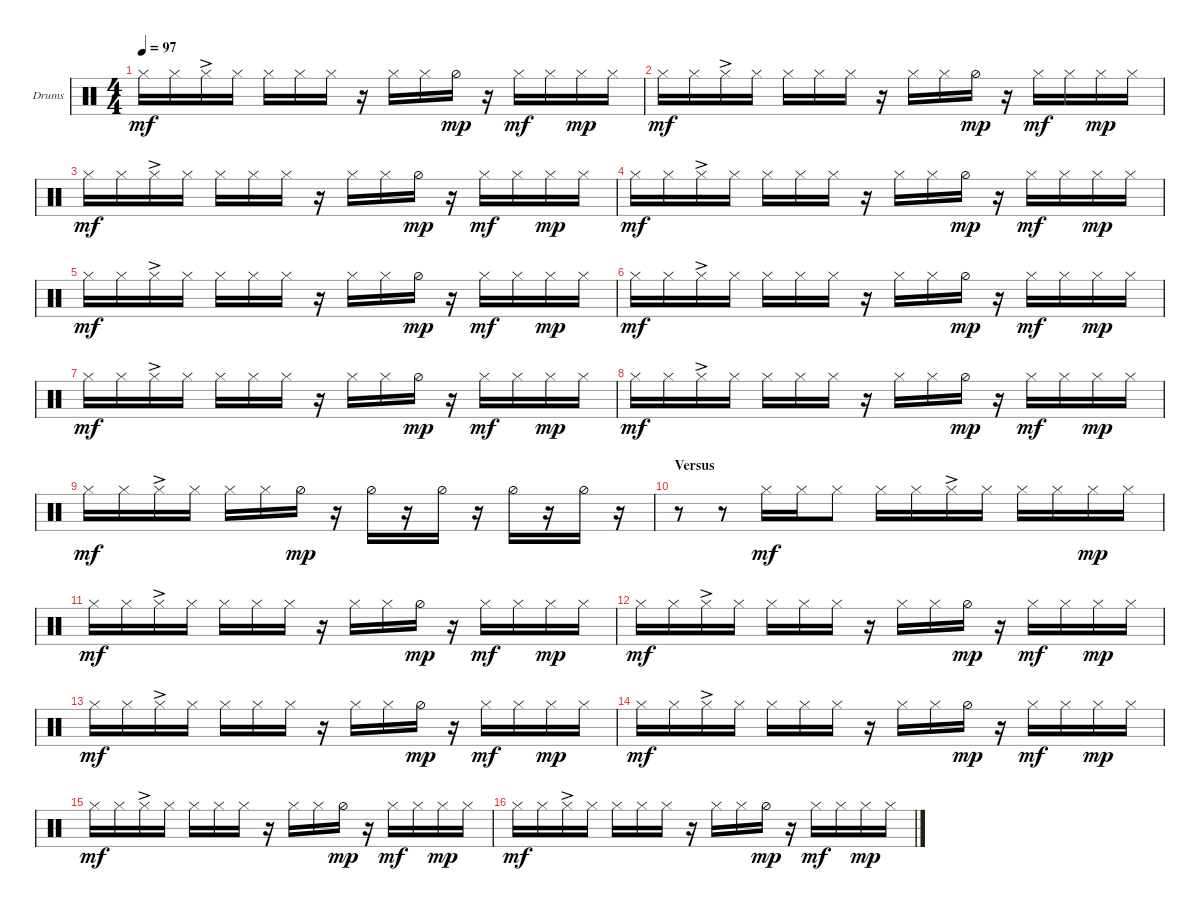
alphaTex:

\bracketExtendMode groupsimilarinstruments
\firstSystemTrackNameOrientation horizontal
\otherSystemsTrackNameOrientation horizontal
\track ("HH" "Drums") {instrument percussion}
\staff {score}
\articulation defaults
\ts (4 4)
\tempo 97
\clef neutral
\ks c "Hi-Hat (closed)".16{dy mf} "Hi-Hat (closed)".16 "Hi-Hat (closed)"{ac}.16 "Hi-Hat (closed)".16 "Hi-Hat (closed)".16 "Hi-Hat (closed)".16 "Hi-Hat (closed)".16
r.16 "Hi-Hat (closed)".16 "Hi-Hat (closed)".16 "Hi-Hat (half)".16{dy mp} r.16 "Hi-Hat (closed)".16{dy mf} "Hi-Hat (closed)".16 "Hi-Hat (closed)".16{dy mp} "Hi-Hat (closed)".16 |
"Hi-Hat (closed)".16{dy mf} "Hi-Hat (closed)".16 "Hi-Hat (closed)"{ac}.16 "Hi-Hat (closed)".16 "Hi-Hat (closed)".16 "Hi-Hat (closed)".16 "Hi-Hat (closed)".16 r.16 "Hi-Hat (closed)".16 "Hi-Hat (closed)".16 "Hi-Hat (half)".16{dy mp} r.16 "Hi-Hat (closed)".16{dy mf} "Hi-Hat (closed)".16 "Hi-Hat (closed)".16{dy mp} "Hi-Hat (closed)".16 |
"Hi-Hat (closed)".16{dy mf} "Hi-Hat (closed)".16 "Hi-Hat (closed)"{ac}.16 "Hi-Hat (closed)".16 "Hi-Hat (closed)".16 "Hi-Hat (closed)".16 "Hi-Hat (closed)".16 r.16 "Hi-Hat (closed)".16 "Hi-Hat (closed)".16 "Hi-Hat (half)".16{dy mp} r.16 "Hi-Hat (closed)".16{dy mf} "Hi-Hat (closed)".16 "Hi-Hat (closed)".16{dy mp} "Hi-Hat (closed)".16 |
"Hi-Hat (closed)".16{dy mf} "Hi-Hat (closed)".16 "Hi-Hat (closed)"{ac}.16 "Hi-Hat (closed)".16 "Hi-Hat (closed)".16 "Hi-Hat (closed)".16 "Hi-Hat (closed)".16 r.16 "Hi-Hat (closed)".16 "Hi-Hat (closed)".16 "Hi-Hat (half)".16{dy mp} r.16 "Hi-Hat (closed)".16{dy mf} "Hi-Hat (closed)".16 "Hi-Hat (closed)".16{dy mp} "Hi-Hat (closed)".16 |
"Hi-Hat (closed)".16{dy mf} "Hi-Hat (closed)".16 "Hi-Hat (closed)"{ac}.16 "Hi-Hat (closed)".16 "Hi-Hat (closed)".16 "Hi-Hat (closed)".16 "Hi-Hat (closed)".16 r.16 "Hi-Hat (closed)".16 "Hi-Hat (closed)".16 "Hi-Hat (half)".16{dy mp} r.16 "Hi-Hat (closed)".16{dy mf} "Hi-Hat (closed)".16 "Hi-Hat (closed)".16{dy mp} "Hi-Hat (closed)".16 |
"Hi-Hat (closed)".16{dy mf} "Hi-Hat (closed)".16 "Hi-Hat (closed)"{ac}.16 "Hi-Hat (closed)".16 "Hi-Hat (closed)".16 "Hi-Hat (closed)".16 "Hi-Hat (closed)".16 r.16 "Hi-Hat (closed)".16 "Hi-Hat (closed)".16 "Hi-Hat (half)".16{dy mp} r.16 "Hi-Hat (closed)".16{dy mf} "Hi-Hat (closed)".16 "Hi-Hat (closed)".16{dy mp} "Hi-Hat (closed)".16 |
"Hi-Hat (closed)".16{dy mf} "Hi-Hat (closed)".16 "Hi-Hat (closed)"{ac}.16 "Hi-Hat (closed)".16 "Hi-Hat (closed)".16 "Hi-Hat (closed)".16 "Hi-Hat (closed)".16 r.16 "Hi-Hat (closed)".16 "Hi-Hat (closed)".16 "Hi-Hat (half)".16{dy mp} r.16 "Hi-Hat (closed)".16{dy mf} "Hi-Hat (closed)".16 "Hi-Hat (closed)".16{dy mp} "Hi-Hat (closed)".16 |
"Hi-Hat (closed)".16{dy mf} "Hi-Hat (closed)".16 "Hi-Hat (closed)"{ac}.16 "Hi-Hat (closed)".16 "Hi-Hat (closed)".16 "Hi-Hat (closed)".16 "Hi-Hat (closed)".16 r.16 "Hi-Hat (closed)".16 "Hi-Hat (closed)".16 "Hi-Hat (half)".16{dy mp} r.16 "Hi-Hat (closed)".16{dy mf} "Hi-Hat (closed)".16 "Hi-Hat (closed)".16{dy mp} "Hi-Hat (closed)".16 |
"Hi-Hat (closed)".16{dy mf} "Hi-Hat (closed)".16 "Hi-Hat (closed)"{ac}.16 "Hi-Hat (closed)".16 "Hi-Hat (closed)".16 "Hi-Hat (closed)".16 "Hi-Hat (half)".16{dy mp} r.16 "Hi-Hat (half)".16 r.16 "Hi-Hat (half)".16 r.16 "Hi-Hat (half)".16 r.16 "Hi-Hat (half)".16 r.16 |
\section ("" "Versus")
r.8 r.8 "Hi-Hat (closed)".16{dy mf} "Hi-Hat (closed)".16 "Hi-Hat (closed)".8 "Hi-Hat (closed)".16 "Hi-Hat (closed)".16 "Hi-Hat (closed)"{ac}.16 "Hi-Hat (closed)".16 "Hi-Hat (closed)".16 "Hi-Hat (closed)".16 "Hi-Hat (closed)".16{dy mp} "Hi-Hat (closed)".16 |
"Hi-Hat (closed)".16{dy mf} "Hi-Hat (closed)".16 "Hi-Hat (closed)"{ac}.16 "Hi-Hat (closed)".16 "Hi-Hat (closed)".16 "Hi-Hat (closed)".16 "Hi-Hat (closed)".16 r.16 "Hi-Hat (closed)".16 "Hi-Hat (closed)".16 "Hi-Hat (half)".16{dy mp} r.16 "Hi-Hat (closed)".16{dy mf} "Hi-Hat (closed)".16 "Hi-Hat (closed)".16{dy mp} "Hi-Hat (closed)".16 |
"Hi-Hat (closed)".16{dy mf} "Hi-Hat (closed)".16 "Hi-Hat (closed)"{ac}.16 "Hi-Hat (closed)".16 "Hi-Hat (closed)".16 "Hi-Hat (closed)".16 "Hi-Hat (closed)".16 r.16 "Hi-Hat (closed)".16 "Hi-Hat (closed)".16 "Hi-Hat (half)".16{dy mp} r.16 "Hi-Hat (closed)".16{dy mf} "Hi-Hat (closed)".16 "Hi-Hat (closed)".16{dy mp} "Hi-Hat (closed)".16 |
"Hi-Hat (closed)".16{dy mf} "Hi-Hat (closed)".16 "Hi-Hat (closed)"{ac}.16 "Hi-Hat (closed)".16 "Hi-Hat (closed)".16 "Hi-Hat (closed)".16 "Hi-Hat (closed)".16 r.16 "Hi-Hat (closed)".16 "Hi-Hat (closed)".16 "Hi-Hat (half)".16{dy mp} r.16 "Hi-Hat (closed)".16{dy mf} "Hi-Hat (closed)".16 "Hi-Hat (closed)".16{dy mp} "Hi-Hat (closed)".16 |
"Hi-Hat (closed)".16{dy mf} "Hi-Hat (closed)".16 "Hi-Hat (closed)"{ac}.16 "Hi-Hat (closed)".16 "Hi-Hat (closed)".16 "Hi-Hat (closed)".16 "Hi-Hat (closed)".16 r.16 "Hi-Hat (closed)".16 "Hi-Hat (closed)".16 "Hi-Hat (half)".16{dy mp} r.16 "Hi-Hat (closed)".16{dy mf} "Hi-Hat (closed)".16 "Hi-Hat (closed)".16{dy mp} "Hi-Hat (closed)".16 |
"Hi-Hat (closed)".16{dy mf} "Hi-Hat (closed)".16 "Hi-Hat (closed)"{ac}.16 "Hi-Hat (closed)".16 "Hi-Hat (closed)".16 "Hi-Hat (closed)".16 "Hi-Hat (closed)".16 r.16 "Hi-Hat (closed)".16 "Hi-Hat (closed)".16 "Hi-Hat (half)".16{dy mp} r.16 "Hi-Hat (closed)".16{dy mf} "Hi-Hat (closed)".16 "Hi-Hat (closed)".16{dy mp} "Hi-Hat (closed)".16 |
"Hi-Hat (closed)".16{dy mf} "Hi-Hat (closed)".16 "Hi-Hat (closed)"{ac}.16 "Hi-Hat (closed)".16 "Hi-Hat (closed)".16 "Hi-Hat (closed)".16 "Hi-Hat (closed)".16 r.16 "Hi-Hat (closed)".16 "Hi-Hat (closed)".16 "Hi-Hat (half)".16{dy mp} r.16 "Hi-Hat (closed)".16{dy mf} "Hi-Hat (closed)".16 "Hi-Hat (closed)".16{dy mp} "Hi-Hat (closed)".16
